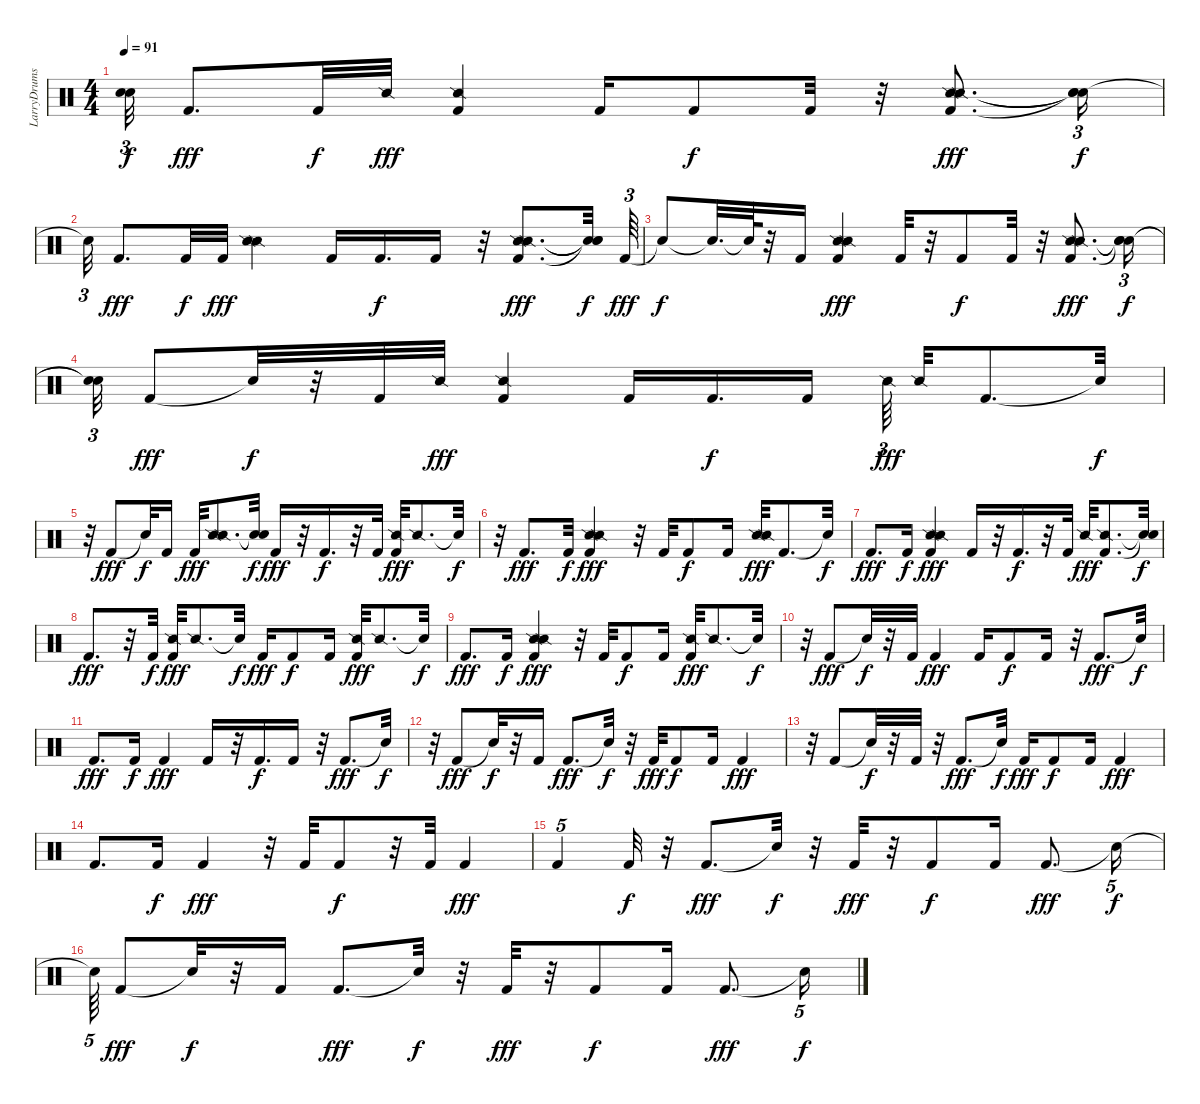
\track ("LarryDrums" "LarryDrums") {instrument percussion}
\staff {score}
\articulation defaults
\ts (4 4)
\tempo 91
\clef neutral
\ks c
("Snare (hit)"{t} "Snare (hit)"{t}).32{tu (3 2) dy f} "Kick (hit) 2".8{d dy fff} "Kick (hit) 2".32{dy f} "Snare (side stick) 2".32{dy fff} ("Snare (side stick) 2" "Kick (hit) 2").4 "Kick (hit) 2".16 "Kick (hit) 2".8{dy f} "Kick (hit) 2".32 r.32 ("Snare (side stick) 2" "Snare (side stick) 2" "Kick (hit) 2").8{d dy fff} ("Snare (hit)"{t} "Snare (hit)"{t} "Snare (hit)"{t}).16{tu (3 2) dy f} |
"Snare (hit)"{t}.32{tu (3 2)} "Kick (hit) 2".8{d dy fff} "Kick (hit) 2".32{dy f} "Kick (hit) 2".32{dy fff} ("Snare (side stick) 2" "Snare (side stick) 2").4 "Kick (hit) 2".16 "Kick (hit) 2".16{d dy f} "Kick (hit) 2".16 r.32 ("Snare (side stick) 2" "Kick (hit) 2" "Snare (side stick) 2").8{d dy fff} ("Snare (hit)"{t} "Snare (hit)"{t} "Snare (hit)"{t}).32{dy f} "Kick (hit) 2".64{tu (3 2) dy fff} |
"Snare (hit)"{t}.8{dy f} "Snare (hit)"{t}.32{d} "Snare (hit)"{t}.64 r.32 "Kick (hit) 2".16 ("Kick (hit) 2" "Snare (side stick) 2" "Snare (side stick) 2").4{dy fff} "Kick (hit) 2".32 r.32 "Kick (hit) 2".8{dy f} "Kick (hit) 2".32 r.32 ("Kick (hit) 2" "Snare (side stick) 2" "Snare (side stick) 2").8{d dy fff} ("Snare (hit)"{t} "Snare (hit)"{t} "Snare (hit)"{t}).16{tu (3 2) dy f} |
("Snare (hit)"{t} "Snare (hit)"{t}).32{tu (3 2)} "Kick (hit) 2".8{dy fff} "Snare (hit)"{t}.32{dy f} r.32 "Kick (hit) 2".32 "Snare (side stick) 2".32{dy fff} ("Snare (side stick) 2" "Kick (hit) 2").4 "Kick (hit) 2".16 "Kick (hit) 2".16{d dy f} "Kick (hit) 2".16{beam splitsecondary} "Snare (side stick) 2".64{tu (3 2) dy fff} "Snare (side stick) 2".32 "Kick (hit) 2".8{d} "Snare (hit)"{t}.32{dy f} |
r.32 "Kick (hit) 2".8{dy fff} "Snare (hit)"{t}.32{dy f} "Kick (hit) 2".16 "Kick (hit) 2".32{dy fff} ("Snare (side stick) 2" "Snare (side stick) 2").8{d} ("Snare (hit)"{t} "Snare (hit)"{t}).32{dy f} "Kick (hit) 2".16{dy fff} r.32 "Kick (hit) 2".16{d dy f} r.32 "Kick (hit) 2".32 ("Snare (side stick) 2" "Kick (hit) 2").32{dy fff} "Snare (side stick) 2".8{d} "Snare (hit)"{t}.32{dy f} |
r.32 "Kick (hit) 2".8{d dy fff} "Kick (hit) 2".32{dy f} ("Snare (side stick) 2" "Kick (hit) 2" "Snare (side stick) 2").4{dy fff} r.32 "Kick (hit) 2".32 "Kick (hit) 2".8{dy f} "Kick (hit) 2".16 ("Snare (side stick) 2" "Snare (side stick) 2").32{dy fff} "Kick (hit) 2".8{d} "Snare (hit)"{t}.32{dy f} |
"Kick (hit) 2".8{d dy fff} "Kick (hit) 2".16{dy f} ("Snare (side stick) 2" "Kick (hit) 2" "Snare (side stick) 2").4{dy fff} "Kick (hit) 2".16 r.32 "Kick (hit) 2".16{d dy f} r.32 "Kick (hit) 2".32 "Snare (side stick) 2".32{dy fff} ("Kick (hit) 2" "Snare (side stick) 2").8{d} ("Snare (hit)"{t} "Snare (hit)"{t}).32{dy f} |
"Kick (hit) 2".8{d dy fff} r.32 "Kick (hit) 2".32{dy f} ("Kick (hit) 2" "Snare (side stick) 2").32{dy fff} "Snare (side stick) 2".8{d} "Snare (hit)"{t}.32{dy f} "Kick (hit) 2".16{dy fff} "Kick (hit) 2".8{dy f} "Kick (hit) 2".16 ("Snare (side stick) 2" "Kick (hit) 2").32{dy fff} "Snare (side stick) 2".8{d} "Snare (hit)"{t}.32{dy f} |
"Kick (hit) 2".8{d dy fff} "Kick (hit) 2".16{dy f} ("Snare (side stick) 2" "Kick (hit) 2" "Snare (side stick) 2").4{dy fff} r.32 "Kick (hit) 2".32 "Kick (hit) 2".8{dy f} "Kick (hit) 2".16 ("Snare (side stick) 2" "Kick (hit) 2").32{dy fff} "Snare (side stick) 2".8{d} "Snare (hit)"{t}.32{dy f} |
r.32 "Kick (hit) 2".8{dy fff} "Snare (hit)"{t}.32{dy f} r.32 "Kick (hit) 2".32 "Kick (hit) 2".4{dy fff} "Kick (hit) 2".16 "Kick (hit) 2".8{dy f} "Kick (hit) 2".16 r.32 "Kick (hit) 2".8{d dy fff} "Snare (hit)"{t}.32{dy f} |
"Kick (hit) 2".8{d dy fff} "Kick (hit) 2".16{dy f} "Kick (hit) 2".4{dy fff} "Kick (hit) 2".16 r.32 "Kick (hit) 2".16{d dy f} "Kick (hit) 2".16 r.32 "Kick (hit) 2".8{d dy fff} "Snare (hit)"{t}.32{dy f} |
r.32 "Kick (hit) 2".8{dy fff} "Snare (hit)"{t}.32{dy f} r.32 "Kick (hit) 2".16 "Kick (hit) 2".8{d dy fff} "Snare (hit)"{t}.32{dy f} r.32 "Kick (hit) 2".32{dy fff} "Kick (hit) 2".8{dy f} "Kick (hit) 2".16 "Kick (hit) 2".4{dy fff} |
r.32 "Kick (hit) 2".8 "Snare (hit)"{t}.32{dy f} r.32 "Kick (hit) 2".32 r.32 "Kick (hit) 2".8{d dy fff} "Snare (hit)"{t}.32{dy f} "Kick (hit) 2".16{dy fff} "Kick (hit) 2".8{dy f} "Kick (hit) 2".16 "Kick (hit) 2".4{dy fff} |
"Kick (hit) 2".8{d} "Kick (hit) 2".16{dy f} "Kick (hit) 2".4{dy fff} r.32 "Kick (hit) 2".32 "Kick (hit) 2".8{dy f} r.32 "Kick (hit) 2".32 "Kick (hit) 2".4{dy fff} |
"Kick (hit) 2".4{tu (5 4)} "Kick (hit) 2".32{dy f} r.32 "Kick (hit) 2".8{d dy fff} "Snare (hit)"{t}.32{dy f} r.32 "Kick (hit) 2".32{dy fff} r.32 "Kick (hit) 2".8{dy f} "Kick (hit) 2".16 "Kick (hit) 2".8{d dy fff} "Snare (hit)"{t}.16{tu (5 4) dy f} |
"Snare (hit)"{t}.64{tu (5 4)} "Kick (hit) 2".8{dy fff} "Snare (hit)"{t}.32{dy f} r.32 "Kick (hit) 2".16 "Kick (hit) 2".8{d dy fff} "Snare (hit)"{t}.32{dy f} r.32 "Kick (hit) 2".32{dy fff} r.32 "Kick (hit) 2".8{dy f} "Kick (hit) 2".16 "Kick (hit) 2".8{d dy fff} "Snare (hit)"{t}.16{tu (5 4) dy f}
